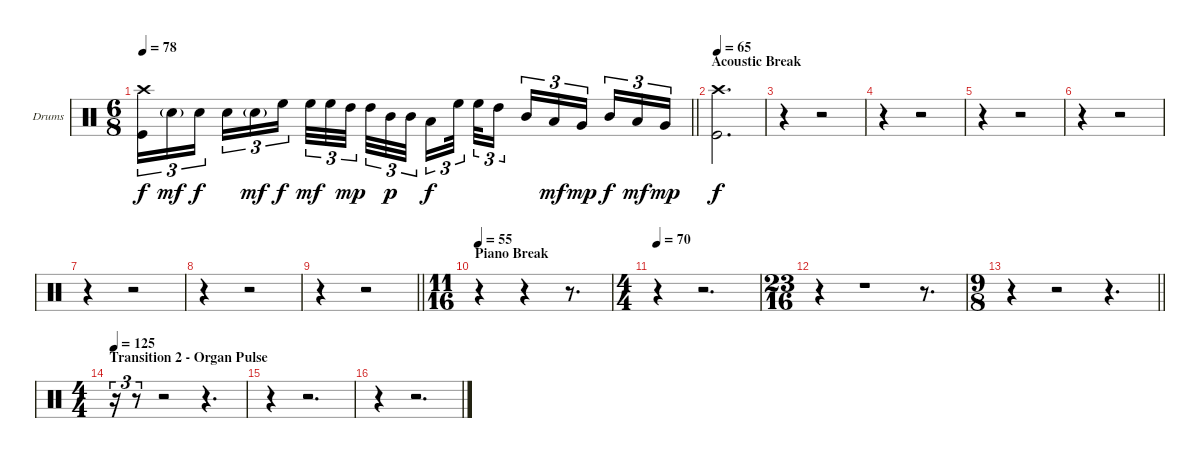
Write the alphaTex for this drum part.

\bracketExtendMode nobrackets
\firstSystemTrackNameOrientation horizontal
\otherSystemsTrackNameOrientation horizontal
\track ("Drumkit" "Drums") {instrument percussion}
\staff {score}
\articulation defaults
\ts (6 8)
\tempo 78
\clef neutral
\barLineRight lightlight
\ks c
("Crash high (hit)" "Kick (hit)").16{tu (3 2) dy f} "Snare (hit) 2"{g}.16{tu (3 2) dy mf} "Snare (hit) 2".16{tu (3 2) dy f} "Snare (hit) 2".16{tu (3 2)} "Snare (hit) 2"{g}.16{tu (3 2) dy mf} "High Floor Tom (hit)".16{tu (3 2) dy f} "High Floor Tom (hit)".32{tu (3 2) dy mf} "High Floor Tom (hit)".32{tu (3 2)} "High Tom (hit)".32{tu (3 2) dy mp} "High Tom (hit)".32{tu (3 2)} "Mid Tom (hit)".32{tu (3 2) dy p} "Mid Tom (hit)".32{tu (3 2)} "Low Tom (hit)".16{tu (3 2) dy f} "High Floor Tom (hit)".32{tu (3 2)} "High Floor Tom (hit)".32{tu (3 2)} "High Tom (hit)".16{tu (3 2)} "Mid Tom (hit)".16{tu (3 2)} "Low Tom (hit)".16{tu (3 2) dy mf} "Very Low Tom (hit)".16{tu (3 2) dy mp} "Mid Tom (hit)".16{tu (3 2) dy f} "Low Tom (hit)".16{tu (3 2) dy mf} "Very Low Tom (hit)".16{tu (3 2) dy mp} |
\section ("" "Acoustic Break")
\tempo 65
("Crash high (hit)" "Kick (hit)").2{d dy f} |
r.4 r.2 |
r.4 r.2 |
r.4 r.2 |
r.4 r.2 |
r.4 r.2 |
r.4 r.2 |
\barLineRight lightlight
r.4 r.2 |
\ts (11 16)
\beaming (8 5)
\section ("" "Piano Break")
\tempo 55
r.4 r.4 r.8{d} |
\ts (4 4)
\beaming (8 2 2 2 2)
\tempo 70
r.4 r.2{d} |
\ts (23 16)
\beaming (8 11)
r.4 r.1 r.8{d} |
\ts (9 8)
\beaming (8 3 3 3)
\barLineRight lightlight
r.4 r.2 r.4{d} |
\ts (4 4)
\beaming (8 2 2 2 2)
\section ("" "Transition 2 - Organ Pulse")
\tempo 125
r.16{tu (3 2)} r.8{tu (3 2)} r.2 r.4{d} |
r.4 r.2{d} |
r.4 r.2{d}
